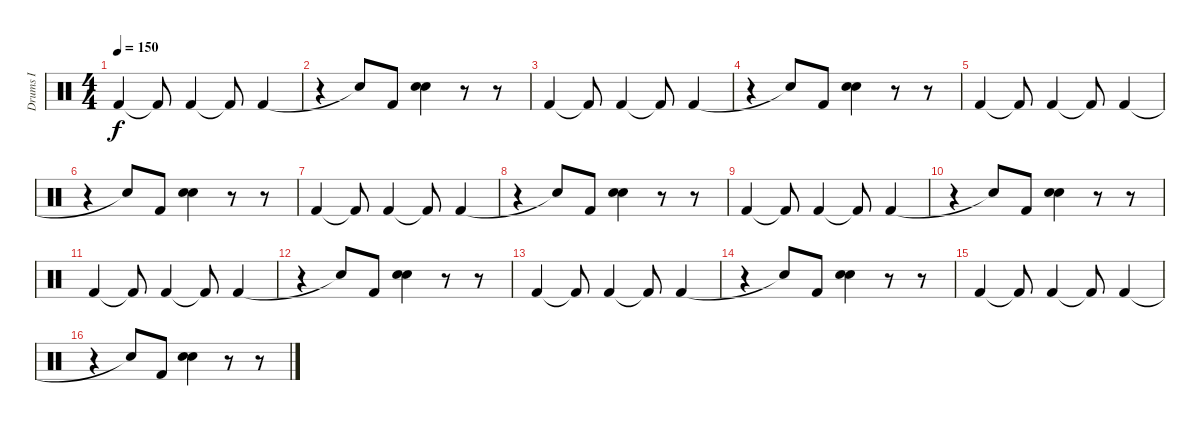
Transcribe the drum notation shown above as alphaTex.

\track ("Drums I" "Drums I") {instrument percussion}
\staff {score}
\articulation defaults
\ts (4 4)
\tempo 150
\clef neutral
\ks c "Kick (hit) 2".4{dy f} "Kick (hit) 2"{t}.8 "Kick (hit) 2".4 "Kick (hit) 2"{t}.8 "Kick (hit) 2".4
|
r.4 "Snare (hit)"{t}.8 "Kick (hit) 2".8 ("Snare (hit) 2" "Electric Snare (hit)").4 r.8 r.8 |
"Kick (hit) 2".4 "Kick (hit) 2"{t}.8 "Kick (hit) 2".4 "Kick (hit) 2"{t}.8 "Kick (hit) 2".4 |
r.4 "Snare (hit)"{t}.8 "Kick (hit) 2".8 ("Snare (hit) 2" "Electric Snare (hit)").4 r.8 r.8 |
"Kick (hit) 2".4 "Kick (hit) 2"{t}.8 "Kick (hit) 2".4 "Kick (hit) 2"{t}.8 "Kick (hit) 2".4 |
r.4 "Snare (hit)"{t}.8 "Kick (hit) 2".8 ("Snare (hit) 2" "Electric Snare (hit)").4 r.8 r.8 |
"Kick (hit) 2".4 "Kick (hit) 2"{t}.8 "Kick (hit) 2".4 "Kick (hit) 2"{t}.8 "Kick (hit) 2".4 |
r.4 "Snare (hit)"{t}.8 "Kick (hit) 2".8 ("Snare (hit) 2" "Electric Snare (hit)").4 r.8 r.8 |
"Kick (hit) 2".4 "Kick (hit) 2"{t}.8 "Kick (hit) 2".4 "Kick (hit) 2"{t}.8 "Kick (hit) 2".4 |
r.4 "Snare (hit)"{t}.8 "Kick (hit) 2".8 ("Snare (hit) 2" "Electric Snare (hit)").4 r.8 r.8 |
"Kick (hit) 2".4 "Kick (hit) 2"{t}.8 "Kick (hit) 2".4 "Kick (hit) 2"{t}.8 "Kick (hit) 2".4 |
r.4 "Snare (hit)"{t}.8 "Kick (hit) 2".8 ("Snare (hit) 2" "Electric Snare (hit)").4 r.8 r.8 |
"Kick (hit) 2".4 "Kick (hit) 2"{t}.8 "Kick (hit) 2".4 "Kick (hit) 2"{t}.8 "Kick (hit) 2".4 |
r.4 "Snare (hit)"{t}.8 "Kick (hit) 2".8 ("Snare (hit) 2" "Electric Snare (hit)").4 r.8 r.8 |
"Kick (hit) 2".4 "Kick (hit) 2"{t}.8 "Kick (hit) 2".4 "Kick (hit) 2"{t}.8 "Kick (hit) 2".4 |
r.4 "Snare (hit)"{t}.8 "Kick (hit) 2".8 ("Snare (hit) 2" "Electric Snare (hit)").4 r.8 r.8
